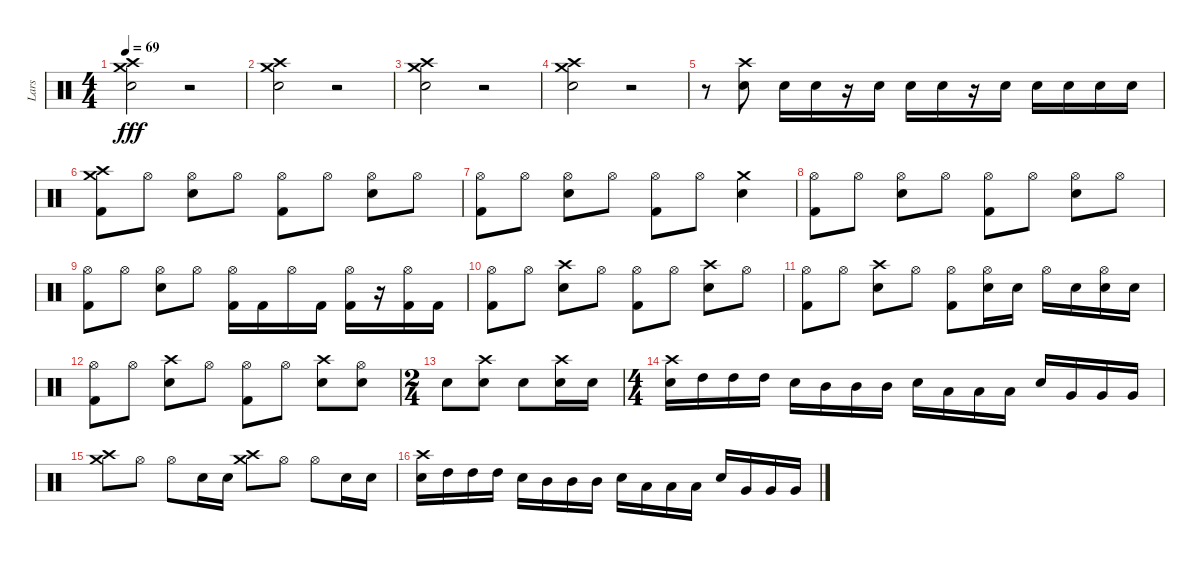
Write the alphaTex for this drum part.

\track ("Lars" "Lars") {instrument percussion}
\staff {score}
\articulation defaults
\ts (4 4)
\tempo 69
\clef neutral
\ks c
("Crash high (hit)" "Crash medium (hit)" "Electric Snare (hit)").2{dy fff} r.2 |
("Crash high (hit)" "Crash medium (hit)" "Electric Snare (hit)").2 r.2 |
("Crash high (hit)" "Crash medium (hit)" "Electric Snare (hit)").2 r.2 |
("Crash high (hit)" "Crash medium (hit)" "Electric Snare (hit)").2 r.2 |
r.8 ("Crash high (hit)" "Electric Snare (hit)").8 "Electric Snare (hit)".16 "Electric Snare (hit)".16 r.16 "Electric Snare (hit)".16 "Electric Snare (hit)".16 "Electric Snare (hit)".16 r.16 "Electric Snare (hit)".16 "Electric Snare (hit)".16 "Electric Snare (hit)".16 "Electric Snare (hit)".16 "Electric Snare (hit)".16 |
("Crash high (hit)" "Crash medium (hit)" "Kick (hit) 2").8 "Hi-Hat (open)".8 ("Hi-Hat (open)" "Electric Snare (hit)").8 "Hi-Hat (open)".8 ("Hi-Hat (open)" "Kick (hit) 2").8 "Hi-Hat (open)".8 ("Hi-Hat (open)" "Electric Snare (hit)").8 "Hi-Hat (open)".8 |
("Hi-Hat (open)" "Kick (hit) 2").8 "Hi-Hat (open)".8 ("Hi-Hat (open)" "Electric Snare (hit)").8 "Hi-Hat (open)".8 ("Hi-Hat (open)" "Kick (hit) 2").8 "Hi-Hat (open)".8 ("Crash medium (hit)" "Electric Snare (hit)").4 |
("Hi-Hat (open)" "Kick (hit) 2").8 "Hi-Hat (open)".8 ("Hi-Hat (open)" "Electric Snare (hit)").8 "Hi-Hat (open)".8 ("Hi-Hat (open)" "Kick (hit) 2").8 "Hi-Hat (open)".8 ("Hi-Hat (open)" "Electric Snare (hit)").8 "Hi-Hat (open)".8 |
("Hi-Hat (open)" "Kick (hit) 2").8 "Hi-Hat (open)".8 ("Hi-Hat (open)" "Electric Snare (hit)").8 "Hi-Hat (open)".8 ("Hi-Hat (open)" "Kick (hit) 2").16 "Kick (hit) 2".16 "Hi-Hat (open)".16 "Kick (hit) 2".16 ("Hi-Hat (open)" "Kick (hit) 2").16 r.16 ("Hi-Hat (open)" "Kick (hit) 2").16 "Kick (hit) 2".16 |
("Hi-Hat (open)" "Kick (hit) 2").8 "Hi-Hat (open)".8 ("Crash high (hit)" "Electric Snare (hit)").8 "Hi-Hat (open)".8 ("Hi-Hat (open)" "Kick (hit) 2").8 "Hi-Hat (open)".8 ("Crash high (hit)" "Electric Snare (hit)").8 "Hi-Hat (open)".8 |
("Hi-Hat (open)" "Kick (hit) 2").8 "Hi-Hat (open)".8 ("Crash high (hit)" "Electric Snare (hit)").8 "Hi-Hat (open)".8 ("Hi-Hat (open)" "Kick (hit) 2").8 ("Hi-Hat (open)" "Electric Snare (hit)").16 "Electric Snare (hit)".16 "Hi-Hat (open)".16 "Electric Snare (hit)".16 ("Hi-Hat (open)" "Electric Snare (hit)").16 "Electric Snare (hit)".16 |
("Hi-Hat (open)" "Kick (hit) 2").8 "Hi-Hat (open)".8 ("Crash high (hit)" "Electric Snare (hit)").8 "Hi-Hat (open)".8 ("Hi-Hat (open)" "Kick (hit) 2").8 "Hi-Hat (open)".8 ("Crash high (hit)" "Electric Snare (hit)").8 ("Hi-Hat (open)" "Electric Snare (hit)").8 |
\ts (2 4)
"Electric Snare (hit)".8 ("Crash high (hit)" "Electric Snare (hit)").8 "Electric Snare (hit)".8 ("Crash high (hit)" "Electric Snare (hit)").16 "Electric Snare (hit)".16 |
\ts (4 4)
("Crash high (hit)" "Electric Snare (hit)").16 "High Tom (hit)".16 "High Tom (hit)".16 "High Tom (hit)".16 "Electric Snare (hit)".16 "Mid Tom (hit)".16 "Mid Tom (hit)".16 "Mid Tom (hit)".16 "Electric Snare (hit)".16 "Low Tom (hit)".16 "Low Tom (hit)".16 "Low Tom (hit)".16 "Electric Snare (hit)".16 "Very Low Tom (hit)".16 "Very Low Tom (hit)".16 "Very Low Tom (hit)".16 |
("Crash high (hit)" "Crash medium (hit)").8 "Hi-Hat (open)".8 "Hi-Hat (open)".8 "Electric Snare (hit)".16 "Electric Snare (hit)".16 ("Crash high (hit)" "Crash medium (hit)").8 "Hi-Hat (open)".8 "Hi-Hat (open)".8 "Electric Snare (hit)".16 "Electric Snare (hit)".16 |
("Crash high (hit)" "Electric Snare (hit)").16 "High Tom (hit)".16 "High Tom (hit)".16 "High Tom (hit)".16 "Electric Snare (hit)".16 "Mid Tom (hit)".16 "Mid Tom (hit)".16 "Mid Tom (hit)".16 "Electric Snare (hit)".16 "Low Tom (hit)".16 "Low Tom (hit)".16 "Low Tom (hit)".16 "Electric Snare (hit)".16 "Very Low Tom (hit)".16 "Very Low Tom (hit)".16 "Very Low Tom (hit)".16
